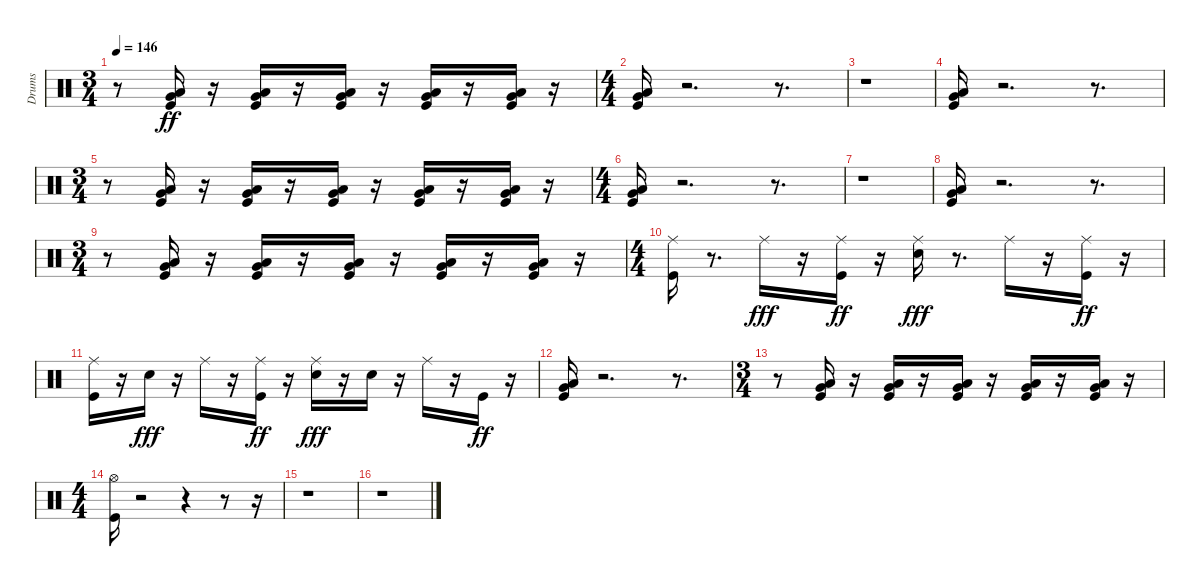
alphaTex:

\track ("Drums" "Drums") {instrument percussion}
\staff {score}
\articulation defaults
\ts (3 4)
\tempo 146
\clef neutral
\ks c
r.8{dy ff} ("Very Low Tom (hit)" "Low Floor Tom (hit)" "Kick (hit)").16 r.16 ("Very Low Tom (hit)" "Low Floor Tom (hit)" "Kick (hit)").16 r.16 ("Very Low Tom (hit)" "Low Floor Tom (hit)" "Kick (hit)").16 r.16 ("Very Low Tom (hit)" "Low Floor Tom (hit)" "Kick (hit)").16 r.16 ("Very Low Tom (hit)" "Low Floor Tom (hit)" "Kick (hit)").16 r.16 |
\ts (4 4)
("Very Low Tom (hit)" "Low Floor Tom (hit)" "Kick (hit)").16 r.2{d} r.8{d} |
r.1 |
("Very Low Tom (hit)" "Low Floor Tom (hit)" "Kick (hit)").16 r.2{d} r.8{d} |
\ts (3 4)
r.8 ("Very Low Tom (hit)" "Low Floor Tom (hit)" "Kick (hit)").16 r.16 ("Very Low Tom (hit)" "Low Floor Tom (hit)" "Kick (hit)").16 r.16 ("Very Low Tom (hit)" "Low Floor Tom (hit)" "Kick (hit)").16 r.16 ("Very Low Tom (hit)" "Low Floor Tom (hit)" "Kick (hit)").16 r.16 ("Very Low Tom (hit)" "Low Floor Tom (hit)" "Kick (hit)").16 r.16 |
\ts (4 4)
("Very Low Tom (hit)" "Low Floor Tom (hit)" "Kick (hit)").16 r.2{d} r.8{d} |
r.1 |
("Very Low Tom (hit)" "Low Floor Tom (hit)" "Kick (hit)").16 r.2{d} r.8{d} |
\ts (3 4)
r.8 ("Very Low Tom (hit)" "Low Floor Tom (hit)" "Kick (hit)").16 r.16 ("Very Low Tom (hit)" "Low Floor Tom (hit)" "Kick (hit)").16 r.16 ("Very Low Tom (hit)" "Low Floor Tom (hit)" "Kick (hit)").16 r.16 ("Very Low Tom (hit)" "Low Floor Tom (hit)" "Kick (hit)").16 r.16 ("Very Low Tom (hit)" "Low Floor Tom (hit)" "Kick (hit)").16 r.16 |
\ts (4 4)
("Ride (middle)" "Kick (hit)").16 r.8{d} "Ride (middle)".16{dy fff} r.16 ("Ride (middle)" "Kick (hit)").16{dy ff} r.16 ("Ride (middle)" "Snare (hit) 2").16{dy fff} r.8{d} "Ride (middle)".16 r.16 ("Ride (middle)" "Kick (hit)").16{dy ff} r.16 |
("Ride (middle)" "Kick (hit)").16 r.16 "Snare (hit) 2".16{dy fff} r.16 "Ride (middle)".16 r.16 ("Ride (middle)" "Kick (hit)").16{dy ff} r.16 ("Ride (middle)" "Snare (hit) 2").16{dy fff} r.16 "Snare (hit) 2".16 r.16 "Ride (middle)".16 r.16 "Kick (hit)".16{dy ff} r.16 |
("Very Low Tom (hit)" "Low Floor Tom (hit)" "Kick (hit)").16 r.2{d} r.8{d} |
\ts (3 4)
r.8 ("Very Low Tom (hit)" "Low Floor Tom (hit)" "Kick (hit)").16 r.16 ("Very Low Tom (hit)" "Low Floor Tom (hit)" "Kick (hit)").16 r.16 ("Very Low Tom (hit)" "Low Floor Tom (hit)" "Kick (hit)").16 r.16 ("Very Low Tom (hit)" "Low Floor Tom (hit)" "Kick (hit)").16 r.16 ("Very Low Tom (hit)" "Low Floor Tom (hit)" "Kick (hit)").16 r.16 |
\ts (4 4)
("Hi-Hat (open)" "Kick (hit)").16 r.2 r.4 r.8 r.16 |
r.1 |
r.1
